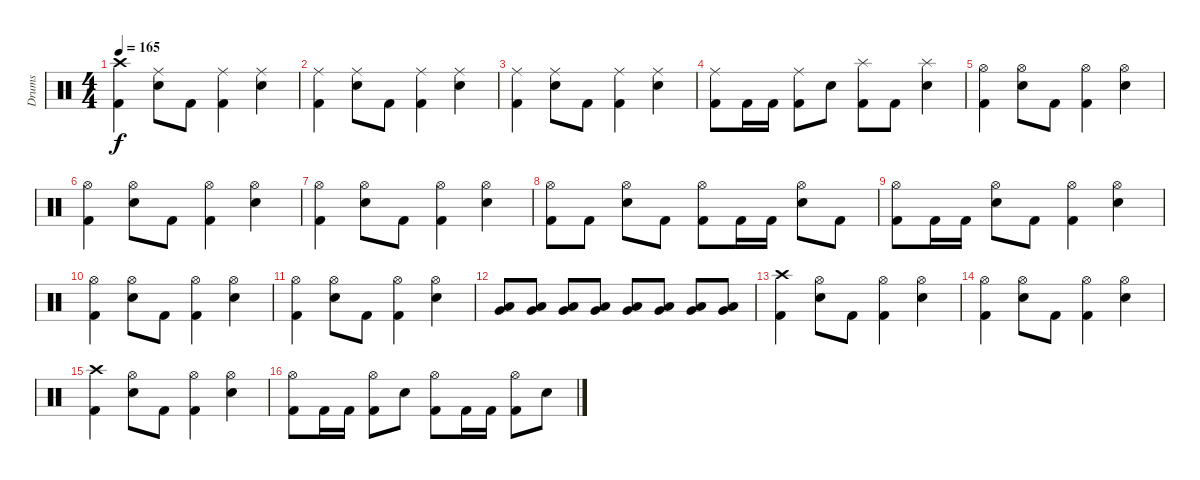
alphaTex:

\track ("Drums" "Drums") {instrument percussion}
\staff {score}
\articulation defaults
\ts (4 4)
\tempo 165
\clef neutral
\ks c
("Crash high (hit)" "Kick (hit) 2").4{dy f} ("Ride (middle)" "Snare (hit) 2").8 "Kick (hit) 2".8 ("Ride (middle)" "Kick (hit) 2").4 ("Ride (middle)" "Snare (hit) 2").4 |
("Ride (middle)" "Kick (hit) 2").4 ("Ride (middle)" "Snare (hit) 2").8 "Kick (hit) 2".8 ("Ride (middle)" "Kick (hit) 2").4 ("Ride (middle)" "Snare (hit) 2").4 |
("Ride (middle)" "Kick (hit) 2").4 ("Ride (middle)" "Snare (hit) 2").8 "Kick (hit) 2".8 ("Ride (middle)" "Kick (hit) 2").4 ("Ride (middle)" "Snare (hit) 2").4 |
("Ride (middle)" "Kick (hit) 2").8 "Kick (hit) 2".16 "Kick (hit) 2".16 ("Ride (middle)" "Kick (hit) 2").8 "Snare (hit) 2".8 ("Splash (hit)" "Kick (hit) 2").8 "Kick (hit) 2".8 ("Splash (hit)" "Snare (hit) 2").4 |
("Hi-Hat (open)" "Kick (hit) 2").4 ("Hi-Hat (open)" "Snare (hit) 2").8 "Kick (hit) 2".8 ("Hi-Hat (open)" "Kick (hit) 2").4 ("Hi-Hat (open)" "Snare (hit) 2").4 |
("Hi-Hat (open)" "Kick (hit) 2").4 ("Hi-Hat (open)" "Snare (hit) 2").8 "Kick (hit) 2".8 ("Hi-Hat (open)" "Kick (hit) 2").4 ("Hi-Hat (open)" "Snare (hit) 2").4 |
("Hi-Hat (open)" "Kick (hit) 2").4 ("Hi-Hat (open)" "Snare (hit) 2").8 "Kick (hit) 2".8 ("Hi-Hat (open)" "Kick (hit) 2").4 ("Hi-Hat (open)" "Snare (hit) 2").4 |
("Hi-Hat (open)" "Kick (hit) 2").8 "Kick (hit) 2".8 ("Hi-Hat (open)" "Snare (hit) 2").8 "Kick (hit) 2".8 ("Hi-Hat (open)" "Kick (hit) 2").8 "Kick (hit) 2".16 "Kick (hit) 2".16 ("Hi-Hat (open)" "Snare (hit) 2").8 "Kick (hit) 2".8 |
("Hi-Hat (open)" "Kick (hit) 2").8 "Kick (hit) 2".16 "Kick (hit) 2".16 ("Hi-Hat (open)" "Snare (hit) 2").8 "Kick (hit) 2".8 ("Hi-Hat (open)" "Kick (hit) 2").4 ("Hi-Hat (open)" "Snare (hit) 2").4 |
("Hi-Hat (open)" "Kick (hit) 2").4 ("Hi-Hat (open)" "Snare (hit) 2").8 "Kick (hit) 2".8 ("Hi-Hat (open)" "Kick (hit) 2").4 ("Hi-Hat (open)" "Snare (hit) 2").4 |
("Hi-Hat (open)" "Kick (hit) 2").4 ("Hi-Hat (open)" "Snare (hit) 2").8 "Kick (hit) 2".8 ("Hi-Hat (open)" "Kick (hit) 2").4 ("Hi-Hat (open)" "Snare (hit) 2").4 |
("Low Tom (hit)" "Very Low Tom (hit)").8 ("Low Tom (hit)" "Very Low Tom (hit)").8 ("Very Low Tom (hit)" "Low Floor Tom (hit)").8 ("Very Low Tom (hit)" "Low Floor Tom (hit)").8 ("Low Tom (hit)" "Very Low Tom (hit)").8 ("Low Tom (hit)" "Very Low Tom (hit)").8 ("Very Low Tom (hit)" "Low Floor Tom (hit)").8 ("Very Low Tom (hit)" "Low Floor Tom (hit)").8 |
("Crash high (hit)" "Kick (hit) 2").4 ("Hi-Hat (open)" "Snare (hit) 2").8 "Kick (hit) 2".8 ("Hi-Hat (open)" "Kick (hit) 2").4 ("Hi-Hat (open)" "Snare (hit) 2").4 |
("Hi-Hat (open)" "Kick (hit) 2").4 ("Hi-Hat (open)" "Snare (hit) 2").8 "Kick (hit) 2".8 ("Hi-Hat (open)" "Kick (hit) 2").4 ("Hi-Hat (open)" "Snare (hit) 2").4 |
("Crash high (hit)" "Kick (hit) 2").4 ("Hi-Hat (open)" "Snare (hit) 2").8 "Kick (hit) 2".8 ("Hi-Hat (open)" "Kick (hit) 2").4 ("Hi-Hat (open)" "Snare (hit) 2").4 |
("Hi-Hat (open)" "Kick (hit) 2").8 "Kick (hit) 2".16 "Kick (hit) 2".16 ("Hi-Hat (open)" "Kick (hit) 2").8 "Snare (hit) 2".8 ("Hi-Hat (open)" "Kick (hit) 2").8 "Kick (hit) 2".16 "Kick (hit) 2".16 ("Hi-Hat (open)" "Kick (hit) 2").8 "Snare (hit) 2".8
